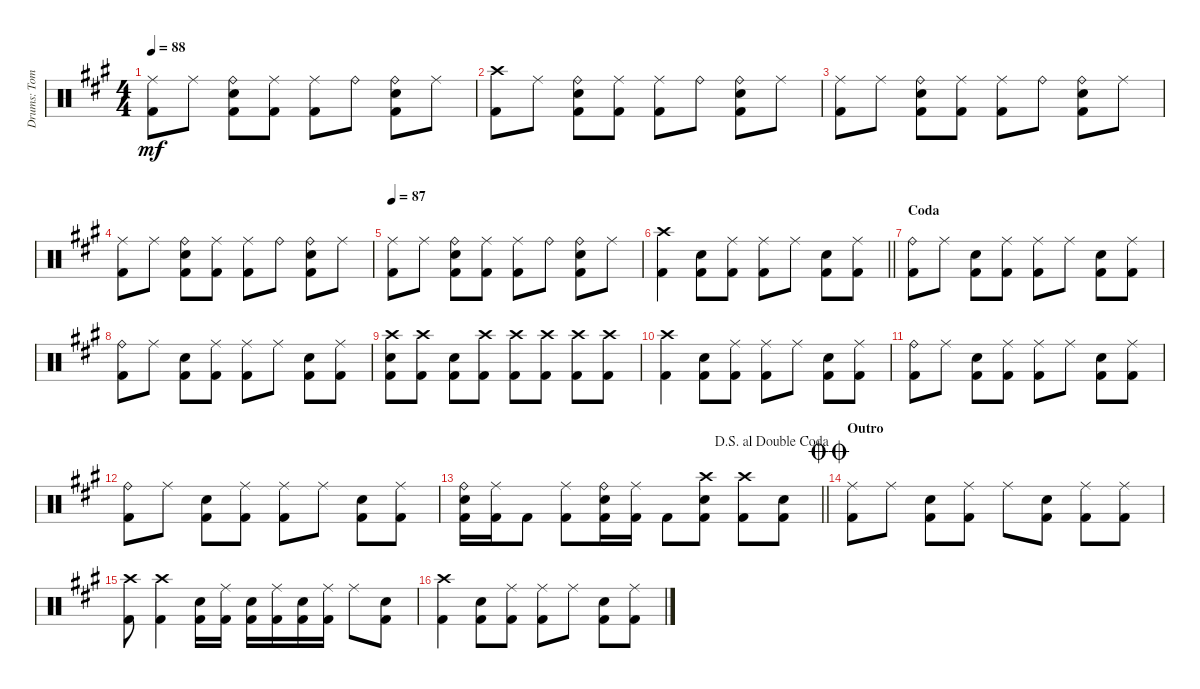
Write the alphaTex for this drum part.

\track ("Drums: Tom" "Drums: Tom") {instrument percussion}
\staff {score}
\articulation defaults
\ts (4 4)
\tempo 88
\clef neutral
\ks a
("Ride (middle)" "Kick (hit) 2").8{dy mf} "Ride (middle)".8 ("Ride (bell)" "Snare (hit) 2" "Kick (hit) 2").8 ("Ride (middle)" "Kick (hit) 2").8 ("Ride (middle)" "Kick (hit) 2").8 "Ride (bell)".8 ("Ride (bell)" "Snare (hit) 2" "Kick (hit) 2").8 "Ride (middle)".8 |
("Crash high (hit)" "Kick (hit) 2").8 "Ride (middle)".8 ("Ride (bell)" "Snare (hit) 2" "Kick (hit) 2").8 ("Ride (middle)" "Kick (hit) 2").8 ("Ride (middle)" "Kick (hit) 2").8 "Ride (bell)".8 ("Ride (bell)" "Snare (hit) 2" "Kick (hit) 2").8 "Ride (middle)".8 |
("Ride (middle)" "Kick (hit) 2").8 "Ride (middle)".8 ("Ride (bell)" "Snare (hit) 2" "Kick (hit) 2").8 ("Ride (middle)" "Kick (hit) 2").8 ("Ride (middle)" "Kick (hit) 2").8 "Ride (bell)".8 ("Ride (bell)" "Snare (hit) 2" "Kick (hit) 2").8 "Ride (middle)".8 |
("Ride (middle)" "Kick (hit) 2").8 "Ride (middle)".8 ("Ride (bell)" "Snare (hit) 2" "Kick (hit) 2").8 ("Ride (middle)" "Kick (hit) 2").8 ("Ride (middle)" "Kick (hit) 2").8 "Ride (bell)".8 ("Ride (bell)" "Snare (hit) 2" "Kick (hit) 2").8 "Ride (middle)".8 |
\tempo 87
("Ride (middle)" "Kick (hit) 2").8 "Ride (middle)".8 ("Ride (bell)" "Snare (hit) 2" "Kick (hit) 2").8 ("Ride (middle)" "Kick (hit) 2").8 ("Ride (middle)" "Kick (hit) 2").8 "Ride (bell)".8 ("Ride (bell)" "Snare (hit) 2" "Kick (hit) 2").8 "Ride (middle)".8 |
\barLineRight lightlight
("Crash high (hit)" "Kick (hit) 2").4 ("Electric Snare (hit)" "Kick (hit) 2").8 ("Ride (middle)" "Kick (hit) 2").8 ("Ride (middle)" "Kick (hit) 2").8 "Ride (middle)".8 ("Electric Snare (hit)" "Kick (hit) 2").8 ("Ride (middle)" "Kick (hit) 2").8 |
\section ("" "Coda")
("Ride (bell)" "Kick (hit) 2").8 "Ride (middle)".8 ("Electric Snare (hit)" "Kick (hit) 2").8 ("Ride (middle)" "Kick (hit) 2").8 ("Ride (middle)" "Kick (hit) 2").8 "Ride (middle)".8 ("Electric Snare (hit)" "Kick (hit) 2").8 ("Ride (middle)" "Kick (hit) 2").8 |
("Ride (bell)" "Kick (hit) 2").8 "Ride (middle)".8 ("Electric Snare (hit)" "Kick (hit) 2").8 ("Ride (middle)" "Kick (hit) 2").8 ("Ride (middle)" "Kick (hit) 2").8 "Ride (middle)".8 ("Electric Snare (hit)" "Kick (hit) 2").8 ("Ride (middle)" "Kick (hit) 2").8 |
("Crash high (hit)" "Snare (hit) 2" "Kick (hit) 2").8 ("Crash high (hit)" "Kick (hit) 2").8 ("Electric Snare (hit)" "Kick (hit) 2").8 ("Crash high (hit)" "Kick (hit) 2").8 ("Crash high (hit)" "Kick (hit) 2").8 ("Crash high (hit)" "Kick (hit) 2").8 ("Crash high (hit)" "Kick (hit) 2").8 ("Crash high (hit)" "Kick (hit) 2").8 |
("Crash high (hit)" "Kick (hit) 2").4 ("Electric Snare (hit)" "Kick (hit) 2").8 ("Ride (middle)" "Kick (hit) 2").8 ("Ride (middle)" "Kick (hit) 2").8 "Ride (middle)".8 ("Electric Snare (hit)" "Kick (hit) 2").8 ("Ride (middle)" "Kick (hit) 2").8 |
("Ride (bell)" "Kick (hit) 2").8 "Ride (middle)".8 ("Electric Snare (hit)" "Kick (hit) 2").8 ("Ride (middle)" "Kick (hit) 2").8 ("Ride (middle)" "Kick (hit) 2").8 "Ride (middle)".8 ("Electric Snare (hit)" "Kick (hit) 2").8 ("Ride (middle)" "Kick (hit) 2").8 |
("Ride (bell)" "Kick (hit) 2").8 "Ride (middle)".8 ("Electric Snare (hit)" "Kick (hit) 2").8 ("Ride (middle)" "Kick (hit) 2").8 ("Ride (middle)" "Kick (hit) 2").8 "Ride (middle)".8 ("Electric Snare (hit)" "Kick (hit) 2").8 ("Ride (middle)" "Kick (hit) 2").8 |
\jump dalsegnoaldoublecoda
\barLineRight lightlight
("Ride (bell)" "Electric Snare (hit)" "Kick (hit) 2").16 ("Ride (middle)" "Kick (hit) 2").16 "Kick (hit) 2".8 ("Ride (middle)" "Kick (hit) 2").8 ("Ride (bell)" "Electric Snare (hit)" "Kick (hit) 2").16 ("Ride (middle)" "Kick (hit) 2").16 "Kick (hit) 2".8 ("Crash high (hit)" "Snare (hit) 2" "Kick (hit) 2").8 ("Crash high (hit)" "Kick (hit) 2").8 ("Electric Snare (hit)" "Kick (hit) 2").8 |
\section ("" "Outro")
\jump doublecoda
("Ride (middle)" "Kick (hit) 2").8 "Ride (middle)".8 ("Electric Snare (hit)" "Kick (hit) 2").8 ("Ride (middle)" "Kick (hit) 2").8 "Ride (middle)".8 ("Electric Snare (hit)" "Kick (hit) 2").8 ("Ride (middle)" "Kick (hit) 2").8 ("Ride (middle)" "Kick (hit) 2").8 |
("Crash high (hit)" "Kick (hit) 2").8 ("Crash high (hit)" "Kick (hit) 2").4 ("Electric Snare (hit)" "Kick (hit) 2").16 ("Ride (middle)" "Kick (hit) 2").16 ("Electric Snare (hit)" "Kick (hit) 2").16 ("Ride (middle)" "Kick (hit) 2").16 ("Electric Snare (hit)" "Kick (hit) 2").16 ("Ride (middle)" "Kick (hit) 2").16 "Ride (middle)".8 ("Electric Snare (hit)" "Kick (hit) 2").8 |
("Crash high (hit)" "Kick (hit) 2").4 ("Electric Snare (hit)" "Kick (hit) 2").8 ("Ride (middle)" "Kick (hit) 2").8 ("Ride (middle)" "Kick (hit) 2").8 "Ride (middle)".8 ("Electric Snare (hit)" "Kick (hit) 2").8 ("Ride (middle)" "Kick (hit) 2").8
